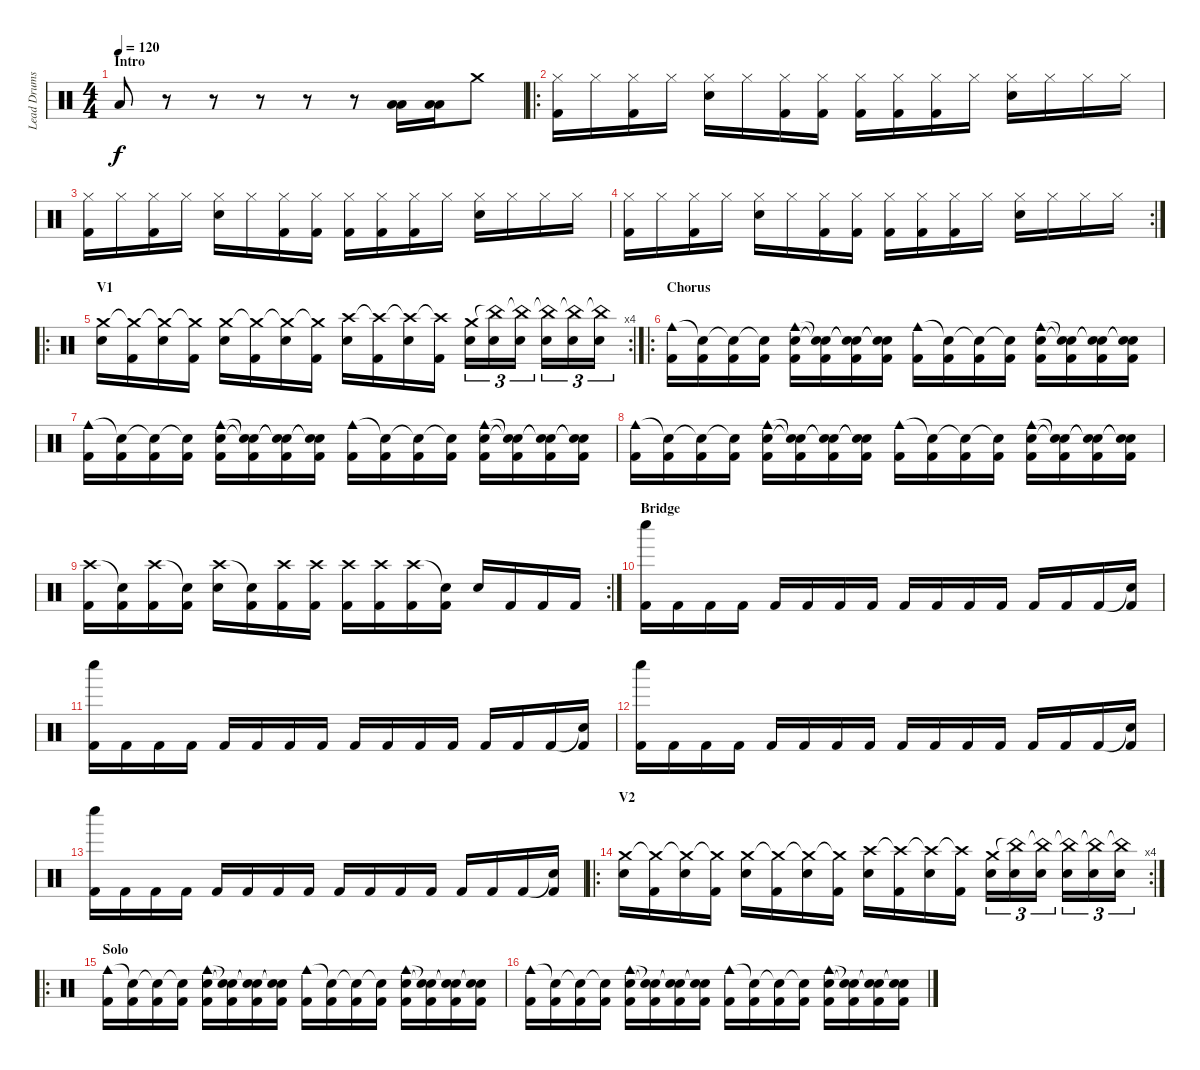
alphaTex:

\track ("Lead Drums" "Lead Drums") {instrument percussion}
\staff {score}
\articulation defaults
\ts (4 4)
\section ("" "Intro")
\tempo 120
\clef neutral
\ks c "Low Tom (hit)".8{dy f}
r.8 r.8 r.8 r.8 r.8 ("Low Tom (hit)" "Low Tom (hit)").16 ("Low Tom (hit)" "Low Tom (hit)").16 "Crash medium (hit)".8 |
\ro
("Hi-Hat (closed)" "Kick (hit) 2").16 "Hi-Hat (closed)".16 ("Hi-Hat (closed)" "Kick (hit) 2").16 "Hi-Hat (closed)".16 ("Hi-Hat (closed)" "Snare (hit) 2").16 "Hi-Hat (closed)".16 ("Hi-Hat (closed)" "Kick (hit) 2").16 ("Hi-Hat (closed)" "Kick (hit) 2").16 ("Hi-Hat (closed)" "Kick (hit) 2").16 ("Hi-Hat (closed)" "Kick (hit) 2").16 ("Hi-Hat (closed)" "Kick (hit) 2").16 "Hi-Hat (closed)".16 ("Hi-Hat (closed)" "Snare (hit) 2").16 "Hi-Hat (closed)".16 "Hi-Hat (closed)".16 "Hi-Hat (closed)".16 |
("Hi-Hat (closed)" "Kick (hit) 2").16 "Hi-Hat (closed)".16 ("Hi-Hat (closed)" "Kick (hit) 2").16 "Hi-Hat (closed)".16 ("Hi-Hat (closed)" "Snare (hit) 2").16 "Hi-Hat (closed)".16 ("Hi-Hat (closed)" "Kick (hit) 2").16 ("Hi-Hat (closed)" "Kick (hit) 2").16 ("Hi-Hat (closed)" "Kick (hit) 2").16 ("Hi-Hat (closed)" "Kick (hit) 2").16 ("Hi-Hat (closed)" "Kick (hit) 2").16 "Hi-Hat (closed)".16 ("Hi-Hat (closed)" "Snare (hit) 2").16 "Hi-Hat (closed)".16 "Hi-Hat (closed)".16 "Hi-Hat (closed)".16 |
\rc 2
("Hi-Hat (closed)" "Kick (hit) 2").16 "Hi-Hat (closed)".16 ("Hi-Hat (closed)" "Kick (hit) 2").16 "Hi-Hat (closed)".16 ("Hi-Hat (closed)" "Snare (hit) 2").16 "Hi-Hat (closed)".16 ("Hi-Hat (closed)" "Kick (hit) 2").16 ("Hi-Hat (closed)" "Kick (hit) 2").16 ("Hi-Hat (closed)" "Kick (hit) 2").16 ("Hi-Hat (closed)" "Kick (hit) 2").16 ("Hi-Hat (closed)" "Kick (hit) 2").16 "Hi-Hat (closed)".16 ("Hi-Hat (closed)" "Snare (hit) 2").16 "Hi-Hat (closed)".16 "Hi-Hat (closed)".16 "Hi-Hat (closed)".16 |
\ro
\rc 4
\section ("" "V1")
("Crash medium (hit)" "Snare (hit) 2").16 ("Crash medium (hit)"{t} "Kick (hit) 2").16 ("Crash medium (hit)"{t} "Snare (hit) 2").16 ("Crash medium (hit)"{t} "Kick (hit) 2").16 ("Crash medium (hit)" "Snare (hit) 2").16 ("Crash medium (hit)"{t} "Kick (hit) 2").16 ("Crash medium (hit)"{t} "Snare (hit) 2").16 ("Crash medium (hit)"{t} "Kick (hit) 2").16 ("Crash high (hit)" "Snare (hit) 2").16 ("Crash high (hit)"{t} "Kick (hit) 2").16 ("Crash high (hit)"{t} "Snare (hit) 2").16 ("Crash high (hit)"{t} "Kick (hit) 2").16 ("Crash medium (hit)" "Snare (hit) 2").16{tu (3 2)} ("China (hit)"{t} "Snare (hit) 2").16{tu (3 2)} ("China (hit)"{t} "Snare (hit) 2").16{tu (3 2)} ("China (hit)"{t} "Snare (hit) 2").16{tu (3 2)} ("China (hit)"{t} "Snare (hit) 2").16{tu (3 2)} ("China (hit)"{t} "Snare (hit) 2").16{tu (3 2)} |
\ro
\section ("" "Chorus")
("Cowbell medium (hit)" "Kick (hit) 2").16 ("Snare (hit)"{t} "Kick (hit) 2").16 ("Snare (hit)"{t} "Kick (hit) 2").16 ("Snare (hit)"{t} "Kick (hit) 2").16 ("Cowbell medium (hit)" "Snare (hit) 2" "Kick (hit) 2").16 ("Snare (hit)"{t} "Snare (hit)"{t} "Kick (hit) 2").16 ("Snare (hit)"{t} "Snare (hit)"{t} "Kick (hit) 2").16 ("Snare (hit)"{t} "Snare (hit)"{t} "Kick (hit) 2").16 ("Cowbell medium (hit)" "Kick (hit) 2").16 ("Snare (hit)"{t} "Kick (hit) 2").16 ("Snare (hit)"{t} "Kick (hit) 2").16 ("Snare (hit)"{t} "Kick (hit) 2").16 ("Cowbell medium (hit)" "Snare (hit) 2" "Kick (hit) 2").16 ("Snare (hit)"{t} "Snare (hit)"{t} "Kick (hit) 2").16 ("Snare (hit)"{t} "Snare (hit)"{t} "Kick (hit) 2").16 ("Snare (hit)"{t} "Snare (hit)"{t} "Kick (hit) 2").16 |
("Cowbell medium (hit)" "Kick (hit) 2").16 ("Snare (hit)"{t} "Kick (hit) 2").16 ("Snare (hit)"{t} "Kick (hit) 2").16 ("Snare (hit)"{t} "Kick (hit) 2").16 ("Cowbell medium (hit)" "Snare (hit) 2" "Kick (hit) 2").16 ("Snare (hit)"{t} "Snare (hit)"{t} "Kick (hit) 2").16 ("Snare (hit)"{t} "Snare (hit)"{t} "Kick (hit) 2").16 ("Snare (hit)"{t} "Snare (hit)"{t} "Kick (hit) 2").16 ("Cowbell medium (hit)" "Kick (hit) 2").16 ("Snare (hit)"{t} "Kick (hit) 2").16 ("Snare (hit)"{t} "Kick (hit) 2").16 ("Snare (hit)"{t} "Kick (hit) 2").16 ("Cowbell medium (hit)" "Snare (hit) 2" "Kick (hit) 2").16 ("Snare (hit)"{t} "Snare (hit)"{t} "Kick (hit) 2").16 ("Snare (hit)"{t} "Snare (hit)"{t} "Kick (hit) 2").16 ("Snare (hit)"{t} "Snare (hit)"{t} "Kick (hit) 2").16 |
("Cowbell medium (hit)" "Kick (hit) 2").16 ("Snare (hit)"{t} "Kick (hit) 2").16 ("Snare (hit)"{t} "Kick (hit) 2").16 ("Snare (hit)"{t} "Kick (hit) 2").16 ("Cowbell medium (hit)" "Snare (hit) 2" "Kick (hit) 2").16 ("Snare (hit)"{t} "Snare (hit)"{t} "Kick (hit) 2").16 ("Snare (hit)"{t} "Snare (hit)"{t} "Kick (hit) 2").16 ("Snare (hit)"{t} "Snare (hit)"{t} "Kick (hit) 2").16 ("Cowbell medium (hit)" "Kick (hit) 2").16 ("Snare (hit)"{t} "Kick (hit) 2").16 ("Snare (hit)"{t} "Kick (hit) 2").16 ("Snare (hit)"{t} "Kick (hit) 2").16 ("Cowbell medium (hit)" "Snare (hit) 2" "Kick (hit) 2").16 ("Snare (hit)"{t} "Snare (hit)"{t} "Kick (hit) 2").16 ("Snare (hit)"{t} "Snare (hit)"{t} "Kick (hit) 2").16 ("Snare (hit)"{t} "Snare (hit)"{t} "Kick (hit) 2").16 |
\rc 2
("Crash high (hit)" "Kick (hit) 2").16 ("Snare (hit)"{t} "Kick (hit) 2").16 ("Crash high (hit)" "Kick (hit) 2").16 ("Snare (hit)"{t} "Kick (hit) 2").16 ("Crash high (hit)" "Snare (hit) 2").16 ("Snare (hit)"{t} "Kick (hit) 2").16 ("Crash high (hit)" "Kick (hit) 2").16 ("Crash high (hit)" "Kick (hit) 2").16 ("Crash high (hit)" "Kick (hit) 2").16 ("Crash high (hit)" "Kick (hit) 2").16 ("Crash high (hit)" "Kick (hit) 2").16 ("Snare (hit)"{t} "Kick (hit) 2").16 "Snare (hit) 2".16 "Kick (hit) 2".16 "Kick (hit) 2".16 "Kick (hit) 2".16 |
\section ("" "Bridge")
("Whistle low (hit)" "Kick (hit) 2").16 "Kick (hit) 2".16 "Kick (hit) 2".16 "Kick (hit) 2".16 "Kick (hit) 2".16 "Kick (hit) 2".16 "Kick (hit) 2".16 "Kick (hit) 2".16 "Kick (hit) 2".16 "Kick (hit) 2".16 "Kick (hit) 2".16 "Kick (hit) 2".16 "Kick (hit) 2".16 "Kick (hit) 2".16 "Kick (hit) 2".16 ("Snare (hit)"{t} "Kick (hit) 2").16 |
("Whistle low (hit)" "Kick (hit) 2").16 "Kick (hit) 2".16 "Kick (hit) 2".16 "Kick (hit) 2".16 "Kick (hit) 2".16 "Kick (hit) 2".16 "Kick (hit) 2".16 "Kick (hit) 2".16 "Kick (hit) 2".16 "Kick (hit) 2".16 "Kick (hit) 2".16 "Kick (hit) 2".16 "Kick (hit) 2".16 "Kick (hit) 2".16 "Kick (hit) 2".16 ("Snare (hit)"{t} "Kick (hit) 2").16 |
("Whistle low (hit)" "Kick (hit) 2").16 "Kick (hit) 2".16 "Kick (hit) 2".16 "Kick (hit) 2".16 "Kick (hit) 2".16 "Kick (hit) 2".16 "Kick (hit) 2".16 "Kick (hit) 2".16 "Kick (hit) 2".16 "Kick (hit) 2".16 "Kick (hit) 2".16 "Kick (hit) 2".16 "Kick (hit) 2".16 "Kick (hit) 2".16 "Kick (hit) 2".16 ("Snare (hit)"{t} "Kick (hit) 2").16 |
("Whistle low (hit)" "Kick (hit) 2").16 "Kick (hit) 2".16 "Kick (hit) 2".16 "Kick (hit) 2".16 "Kick (hit) 2".16 "Kick (hit) 2".16 "Kick (hit) 2".16 "Kick (hit) 2".16 "Kick (hit) 2".16 "Kick (hit) 2".16 "Kick (hit) 2".16 "Kick (hit) 2".16 "Kick (hit) 2".16 "Kick (hit) 2".16 "Kick (hit) 2".16 ("Snare (hit)"{t} "Kick (hit) 2").16 |
\ro
\rc 4
\section ("" "V2")
("Crash medium (hit)" "Snare (hit) 2").16 ("Crash medium (hit)"{t} "Kick (hit) 2").16 ("Crash medium (hit)"{t} "Snare (hit) 2").16 ("Crash medium (hit)"{t} "Kick (hit) 2").16 ("Crash medium (hit)" "Snare (hit) 2").16 ("Crash medium (hit)"{t} "Kick (hit) 2").16 ("Crash medium (hit)"{t} "Snare (hit) 2").16 ("Crash medium (hit)"{t} "Kick (hit) 2").16 ("Crash high (hit)" "Snare (hit) 2").16 ("Crash high (hit)"{t} "Kick (hit) 2").16 ("Crash high (hit)"{t} "Snare (hit) 2").16 ("Crash high (hit)"{t} "Kick (hit) 2").16 ("Crash medium (hit)" "Snare (hit) 2").16{tu (3 2)} ("China (hit)"{t} "Snare (hit) 2").16{tu (3 2)} ("China (hit)"{t} "Snare (hit) 2").16{tu (3 2)} ("China (hit)"{t} "Snare (hit) 2").16{tu (3 2)} ("China (hit)"{t} "Snare (hit) 2").16{tu (3 2)} ("China (hit)"{t} "Snare (hit) 2").16{tu (3 2)} |
\ro
\section ("" "Solo")
("Cowbell medium (hit)" "Kick (hit) 2").16 ("Snare (hit)"{t} "Kick (hit) 2").16 ("Snare (hit)"{t} "Kick (hit) 2").16 ("Snare (hit)"{t} "Kick (hit) 2").16 ("Cowbell medium (hit)" "Snare (hit) 2" "Kick (hit) 2").16 ("Snare (hit)"{t} "Snare (hit)"{t} "Kick (hit) 2").16 ("Snare (hit)"{t} "Snare (hit)"{t} "Kick (hit) 2").16 ("Snare (hit)"{t} "Snare (hit)"{t} "Kick (hit) 2").16 ("Cowbell medium (hit)" "Kick (hit) 2").16 ("Snare (hit)"{t} "Kick (hit) 2").16 ("Snare (hit)"{t} "Kick (hit) 2").16 ("Snare (hit)"{t} "Kick (hit) 2").16 ("Cowbell medium (hit)" "Snare (hit) 2" "Kick (hit) 2").16 ("Snare (hit)"{t} "Snare (hit)"{t} "Kick (hit) 2").16 ("Snare (hit)"{t} "Snare (hit)"{t} "Kick (hit) 2").16 ("Snare (hit)"{t} "Snare (hit)"{t} "Kick (hit) 2").16 |
("Cowbell medium (hit)" "Kick (hit) 2").16 ("Snare (hit)"{t} "Kick (hit) 2").16 ("Snare (hit)"{t} "Kick (hit) 2").16 ("Snare (hit)"{t} "Kick (hit) 2").16 ("Cowbell medium (hit)" "Snare (hit) 2" "Kick (hit) 2").16 ("Snare (hit)"{t} "Snare (hit)"{t} "Kick (hit) 2").16 ("Snare (hit)"{t} "Snare (hit)"{t} "Kick (hit) 2").16 ("Snare (hit)"{t} "Snare (hit)"{t} "Kick (hit) 2").16 ("Cowbell medium (hit)" "Kick (hit) 2").16 ("Snare (hit)"{t} "Kick (hit) 2").16 ("Snare (hit)"{t} "Kick (hit) 2").16 ("Snare (hit)"{t} "Kick (hit) 2").16 ("Cowbell medium (hit)" "Snare (hit) 2" "Kick (hit) 2").16 ("Snare (hit)"{t} "Snare (hit)"{t} "Kick (hit) 2").16 ("Snare (hit)"{t} "Snare (hit)"{t} "Kick (hit) 2").16 ("Snare (hit)"{t} "Snare (hit)"{t} "Kick (hit) 2").16
